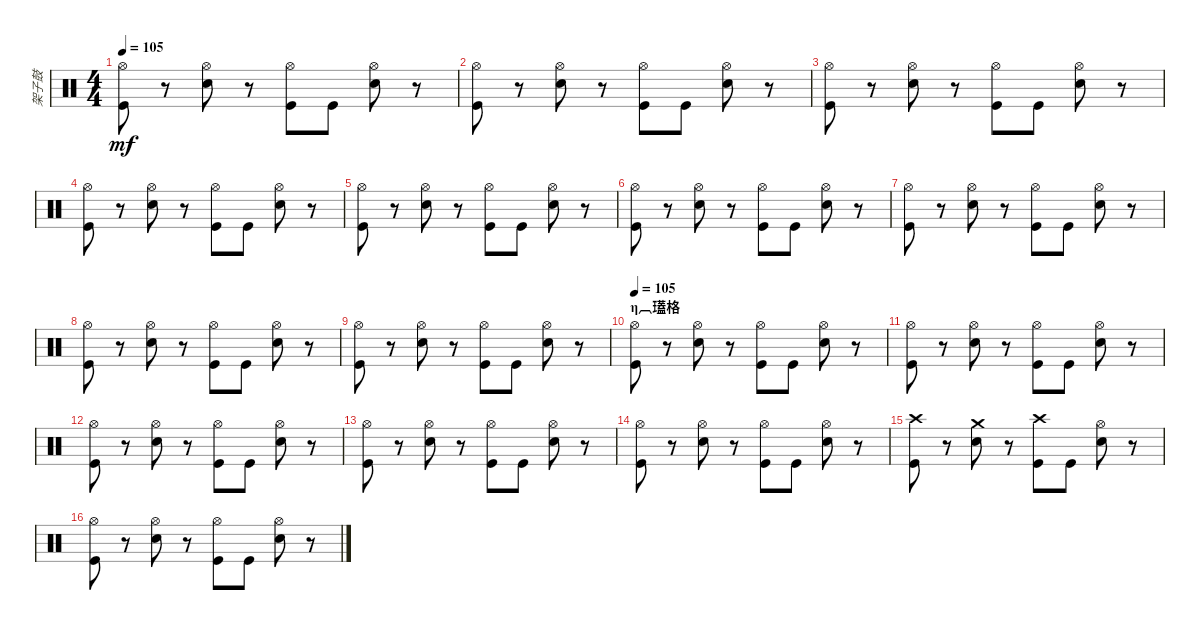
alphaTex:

\track ("架子鼓" "架子鼓") {instrument percussion}
\staff {score}
\articulation defaults
\ts (4 4)
\tempo 105
\clef neutral
\ks c
("Hi-Hat (open)" "Kick (hit)").8{dy mf} r.8 ("Hi-Hat (open)" "Snare (hit) 2").8 r.8 ("Hi-Hat (open)" "Kick (hit)").8 "Kick (hit)".8 ("Hi-Hat (open)" "Snare (hit) 2").8 r.8 |
("Hi-Hat (open)" "Kick (hit)").8 r.8 ("Hi-Hat (open)" "Snare (hit) 2").8 r.8 ("Hi-Hat (open)" "Kick (hit)").8 "Kick (hit)".8 ("Hi-Hat (open)" "Snare (hit) 2").8 r.8 |
("Hi-Hat (open)" "Kick (hit)").8 r.8 ("Hi-Hat (open)" "Snare (hit) 2").8 r.8 ("Hi-Hat (open)" "Kick (hit)").8 "Kick (hit)".8 ("Hi-Hat (open)" "Snare (hit) 2").8 r.8 |
("Hi-Hat (open)" "Kick (hit)").8 r.8 ("Hi-Hat (open)" "Snare (hit) 2").8 r.8 ("Hi-Hat (open)" "Kick (hit)").8 "Kick (hit)".8 ("Hi-Hat (open)" "Snare (hit) 2").8 r.8 |
("Hi-Hat (open)" "Kick (hit)").8 r.8 ("Hi-Hat (open)" "Snare (hit) 2").8 r.8 ("Hi-Hat (open)" "Kick (hit)").8 "Kick (hit)".8 ("Hi-Hat (open)" "Snare (hit) 2").8 r.8 |
("Hi-Hat (open)" "Kick (hit)").8 r.8 ("Hi-Hat (open)" "Snare (hit) 2").8 r.8 ("Hi-Hat (open)" "Kick (hit)").8 "Kick (hit)".8 ("Hi-Hat (open)" "Snare (hit) 2").8 r.8 |
("Hi-Hat (open)" "Kick (hit)").8 r.8 ("Hi-Hat (open)" "Snare (hit) 2").8 r.8 ("Hi-Hat (open)" "Kick (hit)").8 "Kick (hit)".8 ("Hi-Hat (open)" "Snare (hit) 2").8 r.8 |
("Hi-Hat (open)" "Kick (hit)").8 r.8 ("Hi-Hat (open)" "Snare (hit) 2").8 r.8 ("Hi-Hat (open)" "Kick (hit)").8 "Kick (hit)".8 ("Hi-Hat (open)" "Snare (hit) 2").8 r.8 |
("Hi-Hat (open)" "Kick (hit)").8 r.8 ("Hi-Hat (open)" "Snare (hit) 2").8 r.8 ("Hi-Hat (open)" "Kick (hit)").8 "Kick (hit)".8 ("Hi-Hat (open)" "Snare (hit) 2").8 r.8 |
\section ("" "η︹瓂格")
\tempo 105
("Hi-Hat (open)" "Kick (hit)").8 r.8 ("Hi-Hat (open)" "Snare (hit) 2").8 r.8 ("Hi-Hat (open)" "Kick (hit)").8 "Kick (hit)".8 ("Hi-Hat (open)" "Snare (hit) 2").8 r.8 |
("Hi-Hat (open)" "Kick (hit)").8 r.8 ("Hi-Hat (open)" "Snare (hit) 2").8 r.8 ("Hi-Hat (open)" "Kick (hit)").8 "Kick (hit)".8 ("Hi-Hat (open)" "Snare (hit) 2").8 r.8 |
("Hi-Hat (open)" "Kick (hit)").8 r.8 ("Hi-Hat (open)" "Snare (hit) 2").8 r.8 ("Hi-Hat (open)" "Kick (hit)").8 "Kick (hit)".8 ("Hi-Hat (open)" "Snare (hit) 2").8 r.8 |
("Hi-Hat (open)" "Kick (hit)").8 r.8 ("Hi-Hat (open)" "Snare (hit) 2").8 r.8 ("Hi-Hat (open)" "Kick (hit)").8 "Kick (hit)".8 ("Hi-Hat (open)" "Snare (hit) 2").8 r.8 |
("Hi-Hat (open)" "Kick (hit)").8 r.8 ("Hi-Hat (open)" "Snare (hit) 2").8 r.8 ("Hi-Hat (open)" "Kick (hit)").8 "Kick (hit)".8 ("Hi-Hat (open)" "Snare (hit) 2").8 r.8 |
("Crash high (hit)" "Kick (hit)").8 r.8 ("Crash medium (hit)" "Snare (hit) 2").8 r.8 ("Crash high (hit)" "Kick (hit)").8 "Kick (hit)".8 ("Hi-Hat (open)" "Snare (hit) 2").8 r.8 |
("Hi-Hat (open)" "Kick (hit)").8 r.8 ("Hi-Hat (open)" "Snare (hit) 2").8 r.8 ("Hi-Hat (open)" "Kick (hit)").8 "Kick (hit)".8 ("Hi-Hat (open)" "Snare (hit) 2").8 r.8
